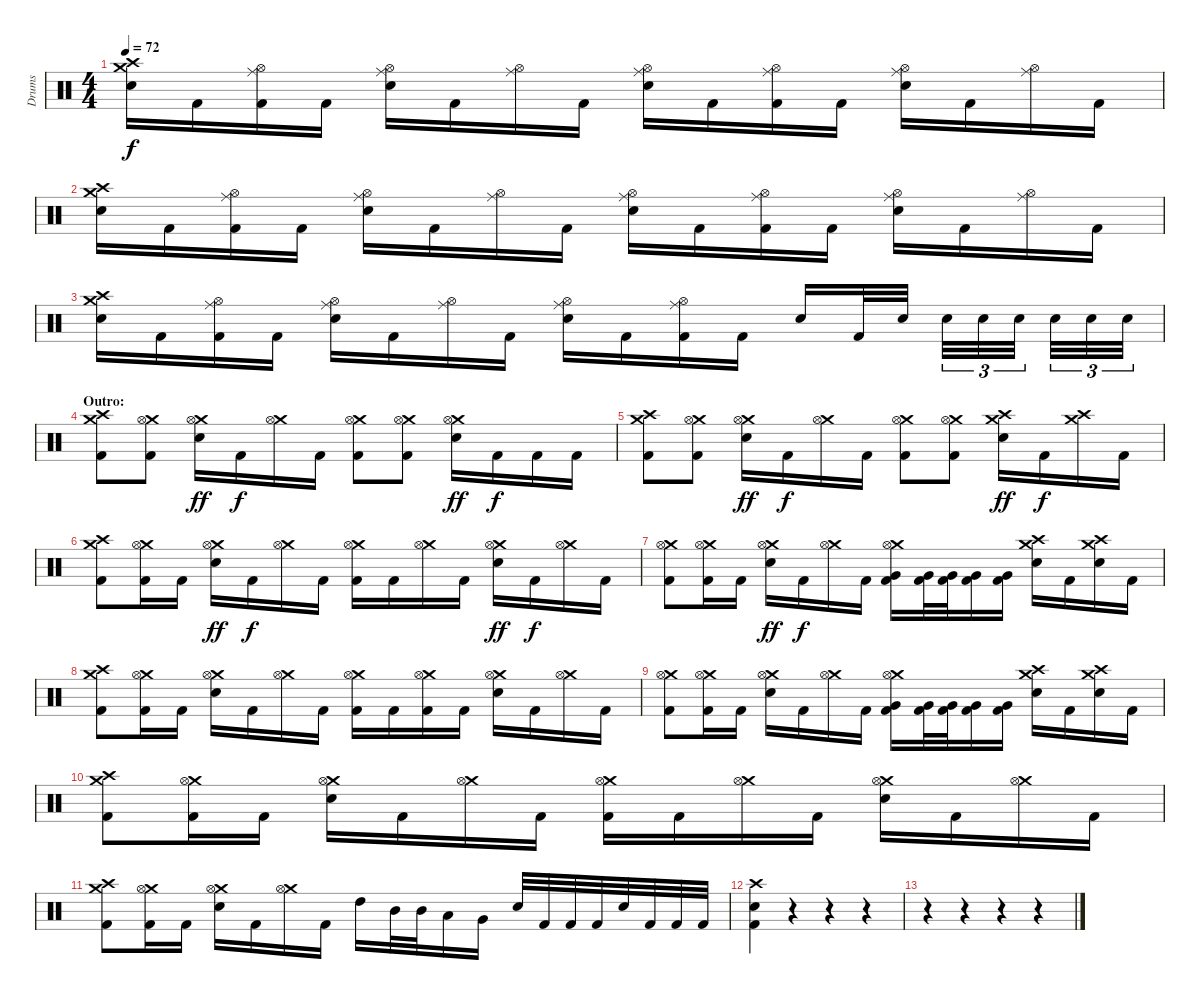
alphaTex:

\track ("Drums" "Drums") {instrument percussion}
\staff {score}
\articulation defaults
\ts (4 4)
\tempo 72
\clef neutral
\ks c
("Crash medium (hit)" "Crash high (hit)" "Electric Snare (hit)").16{dy f} "Kick (hit) 2".16 ("Ride (middle)" "Hi-Hat (open)" "Kick (hit) 2").16 "Kick (hit) 2".16 ("Ride (middle)" "Hi-Hat (open)" "Electric Snare (hit)").16 "Kick (hit) 2".16 ("Ride (middle)" "Hi-Hat (open)").16 "Kick (hit) 2".16 ("Ride (middle)" "Hi-Hat (open)" "Electric Snare (hit)").16 "Kick (hit) 2".16 ("Ride (middle)" "Hi-Hat (open)" "Kick (hit) 2").16 "Kick (hit) 2".16 ("Ride (middle)" "Hi-Hat (open)" "Electric Snare (hit)").16 "Kick (hit) 2".16 ("Ride (middle)" "Hi-Hat (open)").16 "Kick (hit) 2".16 |
("Crash medium (hit)" "Crash high (hit)" "Electric Snare (hit)").16 "Kick (hit) 2".16 ("Ride (middle)" "Hi-Hat (open)" "Kick (hit) 2").16 "Kick (hit) 2".16 ("Ride (middle)" "Hi-Hat (open)" "Electric Snare (hit)").16 "Kick (hit) 2".16 ("Ride (middle)" "Hi-Hat (open)").16 "Kick (hit) 2".16 ("Ride (middle)" "Hi-Hat (open)" "Electric Snare (hit)").16 "Kick (hit) 2".16 ("Ride (middle)" "Hi-Hat (open)" "Kick (hit) 2").16 "Kick (hit) 2".16 ("Ride (middle)" "Hi-Hat (open)" "Electric Snare (hit)").16 "Kick (hit) 2".16 ("Ride (middle)" "Hi-Hat (open)").16 "Kick (hit) 2".16 |
("Crash medium (hit)" "Crash high (hit)" "Electric Snare (hit)").16 "Kick (hit) 2".16 ("Ride (middle)" "Hi-Hat (open)" "Kick (hit) 2").16 "Kick (hit) 2".16 ("Ride (middle)" "Hi-Hat (open)" "Electric Snare (hit)").16 "Kick (hit) 2".16 ("Ride (middle)" "Hi-Hat (open)").16 "Kick (hit) 2".16 ("Ride (middle)" "Hi-Hat (open)" "Electric Snare (hit)").16 "Kick (hit) 2".16 ("Ride (middle)" "Hi-Hat (open)" "Kick (hit) 2").16 "Kick (hit) 2".16 "Electric Snare (hit)".16 "Kick (hit) 2".32 "Electric Snare (hit)".32 "Electric Snare (hit)".32{tu (3 2)} "Electric Snare (hit)".32{tu (3 2)} "Electric Snare (hit)".32{tu (3 2)} "Electric Snare (hit)".32{tu (3 2)} "Electric Snare (hit)".32{tu (3 2)} "Electric Snare (hit)".32{tu (3 2)} |
\section ("" "Outro:")
("Crash medium (hit)" "Crash high (hit)" "Kick (hit) 2").8 ("Crash medium (hit)" "Hi-Hat (open)" "Kick (hit) 2").8 ("Crash medium (hit)" "Hi-Hat (open)" "Electric Snare (hit)").16{dy ff} "Kick (hit) 2".16{dy f} ("Crash medium (hit)" "Hi-Hat (open)").16 "Kick (hit) 2".16 ("Crash medium (hit)" "Hi-Hat (open)" "Kick (hit) 2").8 ("Crash medium (hit)" "Hi-Hat (open)" "Kick (hit) 2").8 ("Crash medium (hit)" "Hi-Hat (open)" "Electric Snare (hit)").16{dy ff} "Kick (hit) 2".16{dy f} "Kick (hit) 2".16 "Kick (hit) 2".16 |
("Crash medium (hit)" "Crash high (hit)" "Kick (hit) 2").8 ("Crash medium (hit)" "Hi-Hat (open)" "Kick (hit) 2").8 ("Crash medium (hit)" "Hi-Hat (open)" "Electric Snare (hit)").16{dy ff} "Kick (hit) 2".16{dy f} ("Crash medium (hit)" "Hi-Hat (open)").16 "Kick (hit) 2".16 ("Crash medium (hit)" "Hi-Hat (open)" "Kick (hit) 2").8 ("Crash medium (hit)" "Hi-Hat (open)" "Kick (hit) 2").8 ("Crash medium (hit)" "Crash high (hit)" "Electric Snare (hit)").16{dy ff} "Kick (hit) 2".16{dy f} ("Crash medium (hit)" "Crash high (hit)").16 "Kick (hit) 2".16 |
("Crash medium (hit)" "Crash high (hit)" "Kick (hit) 2").8 ("Crash medium (hit)" "Hi-Hat (open)" "Kick (hit) 2").16 "Kick (hit) 2".16 ("Crash medium (hit)" "Hi-Hat (open)" "Electric Snare (hit)").16{dy ff} "Kick (hit) 2".16{dy f} ("Crash medium (hit)" "Hi-Hat (open)").16 "Kick (hit) 2".16 ("Crash medium (hit)" "Hi-Hat (open)" "Kick (hit) 2").16 "Kick (hit) 2".16 ("Crash medium (hit)" "Hi-Hat (open)").16 "Kick (hit) 2".16 ("Crash medium (hit)" "Hi-Hat (open)" "Electric Snare (hit)").16{dy ff} "Kick (hit) 2".16{dy f} ("Crash medium (hit)" "Hi-Hat (open)").16 "Kick (hit) 2".16 |
("Crash medium (hit)" "Hi-Hat (open)" "Kick (hit) 2").8 ("Crash medium (hit)" "Hi-Hat (open)" "Kick (hit) 2").16 "Kick (hit) 2".16 ("Crash medium (hit)" "Hi-Hat (open)" "Electric Snare (hit)").16{dy ff} "Kick (hit) 2".16{dy f} ("Crash medium (hit)" "Hi-Hat (open)").16 "Kick (hit) 2".16 ("Crash medium (hit)" "Hi-Hat (open)" "Very Low Tom (hit)" "Kick (hit) 2").16 ("Very Low Tom (hit)" "Kick (hit) 2").32 ("Very Low Tom (hit)" "Kick (hit) 2").32 ("Very Low Tom (hit)" "Kick (hit) 2").16 ("Very Low Tom (hit)" "Kick (hit) 2").16 ("Crash medium (hit)" "Crash high (hit)" "Electric Snare (hit)").16 "Kick (hit) 2".16 ("Crash medium (hit)" "Crash high (hit)" "Electric Snare (hit)").16 "Kick (hit) 2".16 |
("Crash medium (hit)" "Crash high (hit)" "Kick (hit) 2").8 ("Crash medium (hit)" "Hi-Hat (open)" "Kick (hit) 2").16 "Kick (hit) 2".16 ("Crash medium (hit)" "Hi-Hat (open)" "Electric Snare (hit)").16 "Kick (hit) 2".16 ("Crash medium (hit)" "Hi-Hat (open)").16 "Kick (hit) 2".16 ("Crash medium (hit)" "Hi-Hat (open)" "Kick (hit) 2").16 "Kick (hit) 2".16 ("Crash medium (hit)" "Hi-Hat (open)" "Kick (hit) 2").16 "Kick (hit) 2".16 ("Crash medium (hit)" "Hi-Hat (open)" "Electric Snare (hit)").16 "Kick (hit) 2".16 ("Crash medium (hit)" "Hi-Hat (open)").16 "Kick (hit) 2".16 |
("Crash medium (hit)" "Hi-Hat (open)" "Kick (hit) 2").8 ("Crash medium (hit)" "Hi-Hat (open)" "Kick (hit) 2").16 "Kick (hit) 2".16 ("Crash medium (hit)" "Hi-Hat (open)" "Electric Snare (hit)").16 "Kick (hit) 2".16 ("Crash medium (hit)" "Hi-Hat (open)").16 "Kick (hit) 2".16 ("Crash medium (hit)" "Hi-Hat (open)" "Very Low Tom (hit)" "Kick (hit) 2").16 ("Very Low Tom (hit)" "Kick (hit) 2").32 ("Very Low Tom (hit)" "Kick (hit) 2").32 ("Very Low Tom (hit)" "Kick (hit) 2").16 ("Very Low Tom (hit)" "Kick (hit) 2").16 ("Crash medium (hit)" "Crash high (hit)" "Electric Snare (hit)").16 "Kick (hit) 2".16 ("Crash medium (hit)" "Crash high (hit)" "Electric Snare (hit)").16 "Kick (hit) 2".16 |
("Crash medium (hit)" "Crash high (hit)" "Kick (hit) 2").8 ("Crash medium (hit)" "Hi-Hat (open)" "Kick (hit) 2").16 "Kick (hit) 2".16 ("Crash medium (hit)" "Hi-Hat (open)" "Electric Snare (hit)").16 "Kick (hit) 2".16 ("Crash medium (hit)" "Hi-Hat (open)").16 "Kick (hit) 2".16 ("Crash medium (hit)" "Hi-Hat (open)" "Kick (hit) 2").16 "Kick (hit) 2".16 ("Crash medium (hit)" "Hi-Hat (open)").16 "Kick (hit) 2".16 ("Crash medium (hit)" "Hi-Hat (open)" "Electric Snare (hit)").16 "Kick (hit) 2".16 ("Crash medium (hit)" "Hi-Hat (open)").16 "Kick (hit) 2".16 |
("Crash medium (hit)" "Crash high (hit)" "Kick (hit) 2").8 ("Crash medium (hit)" "Hi-Hat (open)" "Kick (hit) 2").16 "Kick (hit) 2".16 ("Crash medium (hit)" "Hi-Hat (open)" "Electric Snare (hit)").16 "Kick (hit) 2".16 ("Crash medium (hit)" "Hi-Hat (open)").16 "Kick (hit) 2".16 "High Tom (hit)".16 "Mid Tom (hit)".32 "Mid Tom (hit)".32 "Low Tom (hit)".16 "Very Low Tom (hit)".16 "Electric Snare (hit)".32 "Kick (hit) 2".32 "Kick (hit) 2".32 "Kick (hit) 2".32 "Electric Snare (hit)".32 "Kick (hit) 2".32 "Kick (hit) 2".32 "Kick (hit) 2".32 |
("Crash high (hit)" "Electric Snare (hit)" "Kick (hit) 2").4 r.4 r.4 r.4 |
r.4 r.4 r.4 r.4
